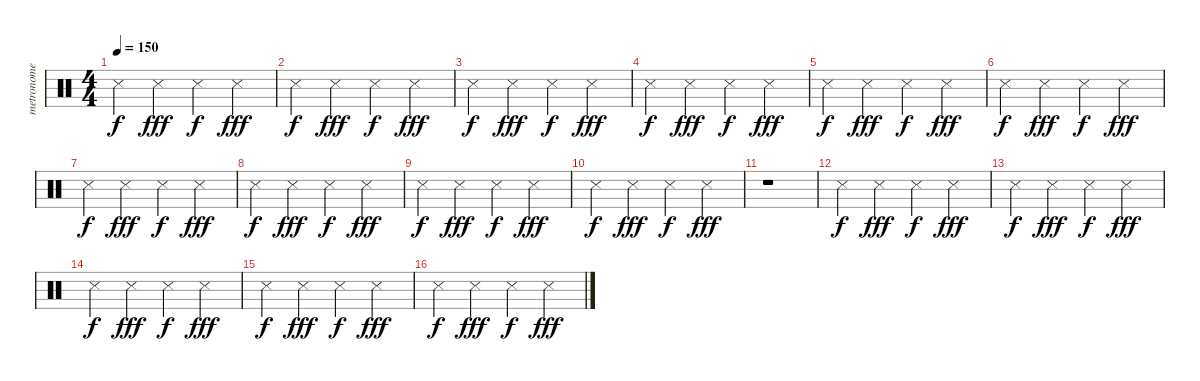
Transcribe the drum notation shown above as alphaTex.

\track ("metronome" "metronome") {instrument percussion}
\staff {score}
\articulation defaults
\ts (4 4)
\tempo 150
\clef neutral
\ks c "Snare (side stick) 3".4{dy f} "Snare (side stick) 3".4{dy fff} "Snare (side stick) 3".4{dy f} "Snare (side stick) 3".4{dy fff}
|
"Snare (side stick) 3".4{dy f} "Snare (side stick) 3".4{dy fff} "Snare (side stick) 3".4{dy f} "Snare (side stick) 3".4{dy fff} |
"Snare (side stick) 3".4{dy f} "Snare (side stick) 3".4{dy fff} "Snare (side stick) 3".4{dy f} "Snare (side stick) 3".4{dy fff} |
"Snare (side stick) 3".4{dy f} "Snare (side stick) 3".4{dy fff} "Snare (side stick) 3".4{dy f} "Snare (side stick) 3".4{dy fff} |
"Snare (side stick) 3".4{dy f} "Snare (side stick) 3".4{dy fff} "Snare (side stick) 3".4{dy f} "Snare (side stick) 3".4{dy fff} |
"Snare (side stick) 3".4{dy f} "Snare (side stick) 3".4{dy fff} "Snare (side stick) 3".4{dy f} "Snare (side stick) 3".4{dy fff} |
"Snare (side stick) 3".4{dy f} "Snare (side stick) 3".4{dy fff} "Snare (side stick) 3".4{dy f} "Snare (side stick) 3".4{dy fff} |
"Snare (side stick) 3".4{dy f} "Snare (side stick) 3".4{dy fff} "Snare (side stick) 3".4{dy f} "Snare (side stick) 3".4{dy fff} |
"Snare (side stick) 3".4{dy f} "Snare (side stick) 3".4{dy fff} "Snare (side stick) 3".4{dy f} "Snare (side stick) 3".4{dy fff} |
"Snare (side stick) 3".4{dy f} "Snare (side stick) 3".4{dy fff} "Snare (side stick) 3".4{dy f} "Snare (side stick) 3".4{dy fff} |
r.1 |
"Snare (side stick) 3".4{dy f} "Snare (side stick) 3".4{dy fff} "Snare (side stick) 3".4{dy f} "Snare (side stick) 3".4{dy fff} |
"Snare (side stick) 3".4{dy f} "Snare (side stick) 3".4{dy fff} "Snare (side stick) 3".4{dy f} "Snare (side stick) 3".4{dy fff} |
"Snare (side stick) 3".4{dy f} "Snare (side stick) 3".4{dy fff} "Snare (side stick) 3".4{dy f} "Snare (side stick) 3".4{dy fff} |
"Snare (side stick) 3".4{dy f} "Snare (side stick) 3".4{dy fff} "Snare (side stick) 3".4{dy f} "Snare (side stick) 3".4{dy fff} |
"Snare (side stick) 3".4{dy f} "Snare (side stick) 3".4{dy fff} "Snare (side stick) 3".4{dy f} "Snare (side stick) 3".4{dy fff}
